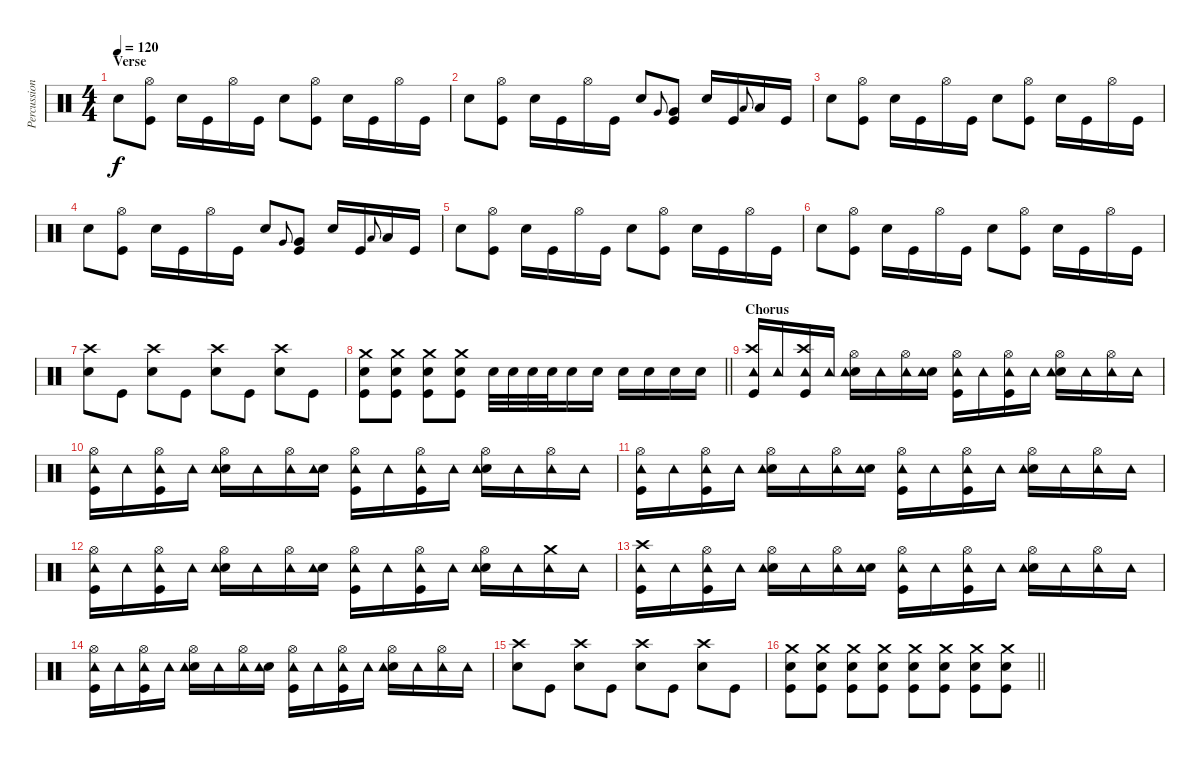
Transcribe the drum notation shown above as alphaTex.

\track ("Percussion" "Percussion") {instrument percussion}
\staff {score}
\articulation defaults
\ts (4 4)
\section ("" "Verse")
\tempo 120
\clef neutral
\ks c "Electric Snare (hit)".8{dy f}
("Hi-Hat (open)" "Kick (hit)").8 "Electric Snare (hit)".16 "Kick (hit)".16 "Hi-Hat (open)".16 "Kick (hit)".16 "Electric Snare (hit)".8 ("Hi-Hat (open)" "Kick (hit)").8 "Electric Snare (hit)".16 "Kick (hit)".16 "Hi-Hat (open)".16 "Kick (hit)".16 |
"Electric Snare (hit)".8 ("Hi-Hat (open)" "Kick (hit)").8 "Electric Snare (hit)".16 "Kick (hit)".16 "Hi-Hat (open)".16 "Kick (hit)".16 "Electric Snare (hit)".8 "Very Low Tom (hit)".8{gr onbeat} ("Very Low Tom (hit)" "Kick (hit)").8 "Electric Snare (hit)".16 "Kick (hit)".16 "Low Floor Tom (hit)".8{gr onbeat} "Low Floor Tom (hit)".16 "Kick (hit)".16 |
"Electric Snare (hit)".8 ("Hi-Hat (open)" "Kick (hit)").8 "Electric Snare (hit)".16 "Kick (hit)".16 "Hi-Hat (open)".16 "Kick (hit)".16 "Electric Snare (hit)".8 ("Hi-Hat (open)" "Kick (hit)").8 "Electric Snare (hit)".16 "Kick (hit)".16 "Hi-Hat (open)".16 "Kick (hit)".16 |
"Electric Snare (hit)".8 ("Hi-Hat (open)" "Kick (hit)").8 "Electric Snare (hit)".16 "Kick (hit)".16 "Hi-Hat (open)".16 "Kick (hit)".16 "Electric Snare (hit)".8 "Very Low Tom (hit)".8{gr onbeat} ("Very Low Tom (hit)" "Kick (hit)").8 "Electric Snare (hit)".16 "Kick (hit)".16 "Low Floor Tom (hit)".8{gr onbeat} "Low Floor Tom (hit)".16 "Kick (hit)".16 |
"Electric Snare (hit)".8 ("Hi-Hat (open)" "Kick (hit)").8 "Electric Snare (hit)".16 "Kick (hit)".16 "Hi-Hat (open)".16 "Kick (hit)".16 "Electric Snare (hit)".8 ("Hi-Hat (open)" "Kick (hit)").8 "Electric Snare (hit)".16 "Kick (hit)".16 "Hi-Hat (open)".16 "Kick (hit)".16 |
"Electric Snare (hit)".8 ("Hi-Hat (open)" "Kick (hit)").8 "Electric Snare (hit)".16 "Kick (hit)".16 "Hi-Hat (open)".16 "Kick (hit)".16 "Electric Snare (hit)".8 ("Hi-Hat (open)" "Kick (hit)").8 "Electric Snare (hit)".16 "Kick (hit)".16 "Hi-Hat (open)".16 "Kick (hit)".16 |
("Crash high (hit)" "Electric Snare (hit)").8 "Kick (hit)".8 ("Crash high (hit)" "Electric Snare (hit)").8 "Kick (hit)".8 ("Crash high (hit)" "Electric Snare (hit)").8 "Kick (hit)".8 ("Crash high (hit)" "Electric Snare (hit)").8 "Kick (hit)".8 |
\barLineRight lightlight
("Crash medium (hit)" "Electric Snare (hit)" "Kick (hit)").8{volume 3} ("Crash medium (hit)" "Electric Snare (hit)" "Kick (hit)").8{volume 8} ("Crash medium (hit)" "Electric Snare (hit)" "Kick (hit)").8 ("Crash medium (hit)" "Electric Snare (hit)" "Kick (hit)").8 "Electric Snare (hit)".32 "Electric Snare (hit)".32 "Electric Snare (hit)".32 "Electric Snare (hit)".32 "Electric Snare (hit)".16 "Electric Snare (hit)".16 "Electric Snare (hit)".16 "Electric Snare (hit)".16 "Electric Snare (hit)".16 "Electric Snare (hit)".16 |
\section ("" "Chorus")
("Crash high (hit)" "Tambourine (hit)" "Kick (hit)").16 "Tambourine (hit)".16 ("Crash high (hit)" "Tambourine (hit)" "Kick (hit)").16 "Tambourine (hit)".16 ("Hi-Hat (open)" "Electric Snare (hit)" "Tambourine (hit)").16 "Tambourine (hit)".16 ("Hi-Hat (open)" "Tambourine (hit)").16 ("Electric Snare (hit)" "Tambourine (hit)").16 ("Hi-Hat (open)" "Tambourine (hit)" "Kick (hit)").16 "Tambourine (hit)".16 ("Hi-Hat (open)" "Tambourine (hit)" "Kick (hit)").16 "Tambourine (hit)".16 ("Hi-Hat (open)" "Electric Snare (hit)" "Tambourine (hit)").16 "Tambourine (hit)".16 ("Hi-Hat (open)" "Tambourine (hit)").16 "Tambourine (hit)".16 |
("Hi-Hat (open)" "Tambourine (hit)" "Kick (hit)").16 "Tambourine (hit)".16 ("Hi-Hat (open)" "Tambourine (hit)" "Kick (hit)").16 "Tambourine (hit)".16 ("Hi-Hat (open)" "Electric Snare (hit)" "Tambourine (hit)").16 "Tambourine (hit)".16 ("Hi-Hat (open)" "Tambourine (hit)").16 ("Electric Snare (hit)" "Tambourine (hit)").16 ("Hi-Hat (open)" "Tambourine (hit)" "Kick (hit)").16 "Tambourine (hit)".16 ("Hi-Hat (open)" "Tambourine (hit)" "Kick (hit)").16 "Tambourine (hit)".16 ("Hi-Hat (open)" "Electric Snare (hit)" "Tambourine (hit)").16 "Tambourine (hit)".16 ("Hi-Hat (open)" "Tambourine (hit)").16 "Tambourine (hit)".16 |
("Hi-Hat (open)" "Tambourine (hit)" "Kick (hit)").16 "Tambourine (hit)".16 ("Hi-Hat (open)" "Tambourine (hit)" "Kick (hit)").16 "Tambourine (hit)".16 ("Hi-Hat (open)" "Electric Snare (hit)" "Tambourine (hit)").16 "Tambourine (hit)".16 ("Hi-Hat (open)" "Tambourine (hit)").16 ("Electric Snare (hit)" "Tambourine (hit)").16 ("Hi-Hat (open)" "Tambourine (hit)" "Kick (hit)").16 "Tambourine (hit)".16 ("Hi-Hat (open)" "Tambourine (hit)" "Kick (hit)").16 "Tambourine (hit)".16 ("Hi-Hat (open)" "Electric Snare (hit)" "Tambourine (hit)").16 "Tambourine (hit)".16 ("Hi-Hat (open)" "Tambourine (hit)").16 "Tambourine (hit)".16 |
("Hi-Hat (open)" "Tambourine (hit)" "Kick (hit)").16 "Tambourine (hit)".16 ("Hi-Hat (open)" "Tambourine (hit)" "Kick (hit)").16 "Tambourine (hit)".16 ("Hi-Hat (open)" "Electric Snare (hit)" "Tambourine (hit)").16 "Tambourine (hit)".16 ("Hi-Hat (open)" "Tambourine (hit)").16 ("Electric Snare (hit)" "Tambourine (hit)").16 ("Hi-Hat (open)" "Tambourine (hit)" "Kick (hit)").16 "Tambourine (hit)".16 ("Hi-Hat (open)" "Tambourine (hit)" "Kick (hit)").16 "Tambourine (hit)".16 ("Hi-Hat (open)" "Electric Snare (hit)" "Tambourine (hit)").16 "Tambourine (hit)".16 ("Crash medium (hit)" "Tambourine (hit)").16 "Tambourine (hit)".16 |
("Crash high (hit)" "Tambourine (hit)" "Kick (hit)").16 "Tambourine (hit)".16 ("Hi-Hat (open)" "Tambourine (hit)" "Kick (hit)").16 "Tambourine (hit)".16 ("Hi-Hat (open)" "Electric Snare (hit)" "Tambourine (hit)").16 "Tambourine (hit)".16 ("Hi-Hat (open)" "Tambourine (hit)").16 ("Electric Snare (hit)" "Tambourine (hit)").16 ("Hi-Hat (open)" "Tambourine (hit)" "Kick (hit)").16 "Tambourine (hit)".16 ("Hi-Hat (open)" "Tambourine (hit)" "Kick (hit)").16 "Tambourine (hit)".16 ("Hi-Hat (open)" "Electric Snare (hit)" "Tambourine (hit)").16 "Tambourine (hit)".16 ("Hi-Hat (open)" "Tambourine (hit)").16 "Tambourine (hit)".16 |
("Hi-Hat (open)" "Tambourine (hit)" "Kick (hit)").16 "Tambourine (hit)".16 ("Hi-Hat (open)" "Tambourine (hit)" "Kick (hit)").16 "Tambourine (hit)".16 ("Hi-Hat (open)" "Electric Snare (hit)" "Tambourine (hit)").16 "Tambourine (hit)".16 ("Hi-Hat (open)" "Tambourine (hit)").16 ("Electric Snare (hit)" "Tambourine (hit)").16 ("Hi-Hat (open)" "Tambourine (hit)" "Kick (hit)").16 "Tambourine (hit)".16 ("Hi-Hat (open)" "Tambourine (hit)" "Kick (hit)").16 "Tambourine (hit)".16 ("Hi-Hat (open)" "Electric Snare (hit)" "Tambourine (hit)").16 "Tambourine (hit)".16 ("Hi-Hat (open)" "Tambourine (hit)").16 "Tambourine (hit)".16 |
("Crash high (hit)" "Electric Snare (hit)").8 "Kick (hit)".8 ("Crash high (hit)" "Electric Snare (hit)").8 "Kick (hit)".8 ("Crash high (hit)" "Electric Snare (hit)").8 "Kick (hit)".8 ("Crash high (hit)" "Electric Snare (hit)").8 "Kick (hit)".8 |
\barLineRight lightlight
("Crash medium (hit)" "Electric Snare (hit)" "Kick (hit)").8{volume 3} ("Crash medium (hit)" "Electric Snare (hit)" "Kick (hit)").8{volume 8} ("Crash medium (hit)" "Electric Snare (hit)" "Kick (hit)").8 ("Crash medium (hit)" "Electric Snare (hit)" "Kick (hit)").8 ("Crash medium (hit)" "Electric Snare (hit)" "Kick (hit)").8 ("Crash medium (hit)" "Electric Snare (hit)" "Kick (hit)").8 ("Crash medium (hit)" "Electric Snare (hit)" "Kick (hit)").8 ("Crash medium (hit)" "Electric Snare (hit)" "Kick (hit)").8
